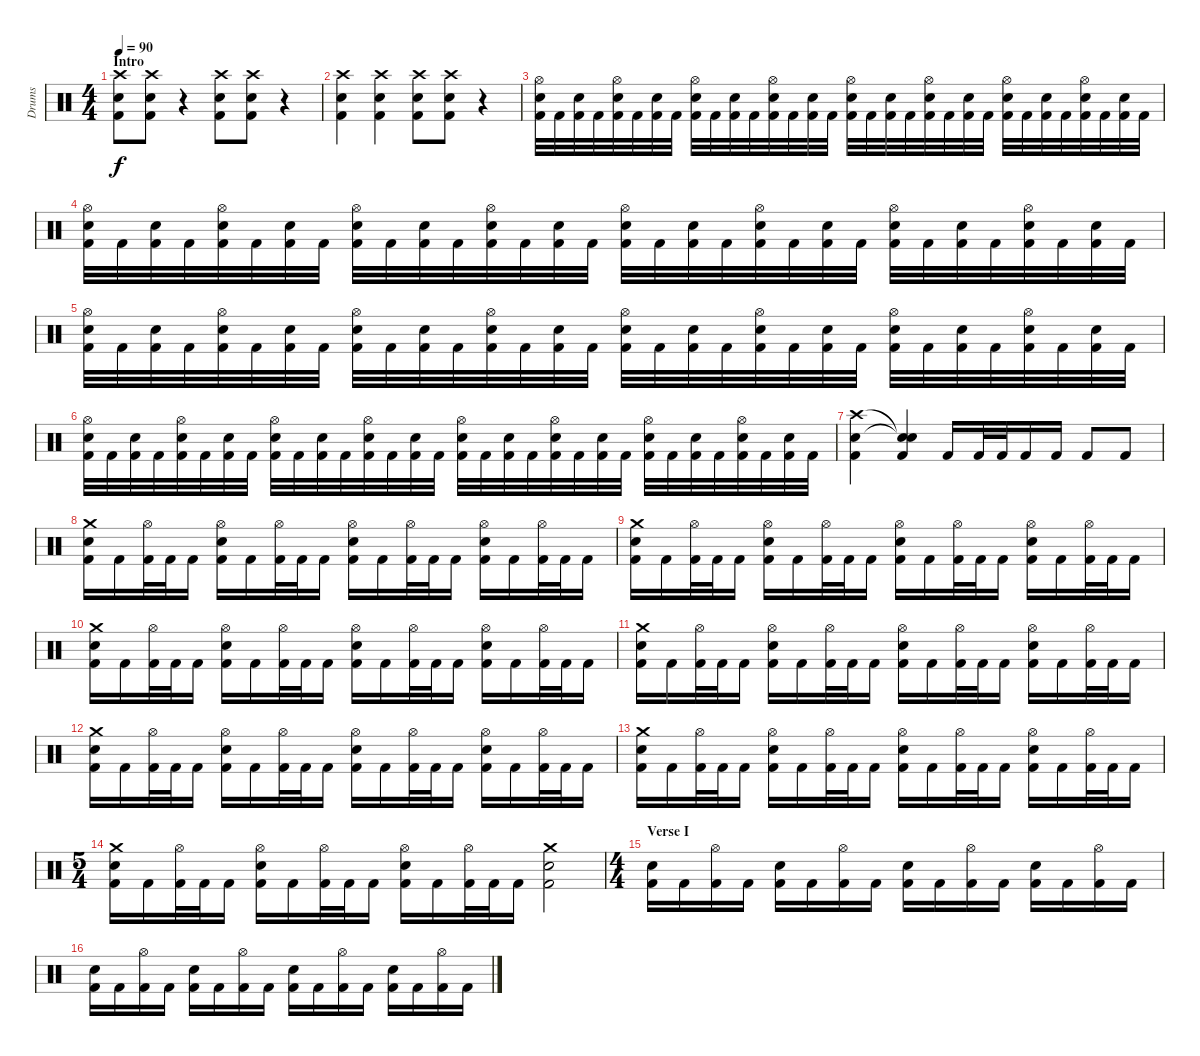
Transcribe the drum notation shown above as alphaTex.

\track ("Drums" "Drums") {instrument percussion}
\staff {score}
\articulation defaults
\ts (4 4)
\section ("" "Intro")
\tempo 90
\clef neutral
\ks c
("Kick (hit) 2" "Snare (hit) 2" "Crash high (hit)").8{dy f} ("Kick (hit) 2" "Snare (hit) 2" "Crash high (hit)").8 r.4 ("Kick (hit) 2" "Snare (hit) 2" "Crash high (hit)").8 ("Kick (hit) 2" "Snare (hit) 2" "Crash high (hit)").8 r.4 |
("Kick (hit) 2" "Snare (hit) 2" "Crash high (hit)").4 ("Kick (hit) 2" "Snare (hit) 2" "Crash high (hit)").4 ("Kick (hit) 2" "Snare (hit) 2" "Crash high (hit)").8 ("Kick (hit) 2" "Snare (hit) 2" "Crash high (hit)").8 r.4 |
("Kick (hit) 2" "Hi-Hat (open)" "Snare (hit) 2").32 "Kick (hit) 2".32 ("Kick (hit) 2" "Snare (hit) 2").32 "Kick (hit) 2".32 ("Kick (hit) 2" "Hi-Hat (open)" "Snare (hit) 2").32 "Kick (hit) 2".32 ("Kick (hit) 2" "Snare (hit) 2").32 "Kick (hit) 2".32 ("Kick (hit) 2" "Hi-Hat (open)" "Snare (hit) 2").32 "Kick (hit) 2".32 ("Kick (hit) 2" "Snare (hit) 2").32 "Kick (hit) 2".32 ("Kick (hit) 2" "Hi-Hat (open)" "Snare (hit) 2").32 "Kick (hit) 2".32 ("Kick (hit) 2" "Snare (hit) 2").32 "Kick (hit) 2".32 ("Kick (hit) 2" "Hi-Hat (open)" "Snare (hit) 2").32 "Kick (hit) 2".32 ("Kick (hit) 2" "Snare (hit) 2").32 "Kick (hit) 2".32 ("Kick (hit) 2" "Hi-Hat (open)" "Snare (hit) 2").32 "Kick (hit) 2".32 ("Kick (hit) 2" "Snare (hit) 2").32 "Kick (hit) 2".32 ("Kick (hit) 2" "Hi-Hat (open)" "Snare (hit) 2").32 "Kick (hit) 2".32 ("Kick (hit) 2" "Snare (hit) 2").32 "Kick (hit) 2".32 ("Kick (hit) 2" "Hi-Hat (open)" "Snare (hit) 2").32 "Kick (hit) 2".32 ("Kick (hit) 2" "Snare (hit) 2").32 "Kick (hit) 2".32 |
("Kick (hit) 2" "Hi-Hat (open)" "Snare (hit) 2").32 "Kick (hit) 2".32 ("Kick (hit) 2" "Snare (hit) 2").32 "Kick (hit) 2".32 ("Kick (hit) 2" "Hi-Hat (open)" "Snare (hit) 2").32 "Kick (hit) 2".32 ("Kick (hit) 2" "Snare (hit) 2").32 "Kick (hit) 2".32 ("Kick (hit) 2" "Hi-Hat (open)" "Snare (hit) 2").32 "Kick (hit) 2".32 ("Kick (hit) 2" "Snare (hit) 2").32 "Kick (hit) 2".32 ("Kick (hit) 2" "Hi-Hat (open)" "Snare (hit) 2").32 "Kick (hit) 2".32 ("Kick (hit) 2" "Snare (hit) 2").32 "Kick (hit) 2".32 ("Kick (hit) 2" "Hi-Hat (open)" "Snare (hit) 2").32 "Kick (hit) 2".32 ("Kick (hit) 2" "Snare (hit) 2").32 "Kick (hit) 2".32 ("Kick (hit) 2" "Hi-Hat (open)" "Snare (hit) 2").32 "Kick (hit) 2".32 ("Kick (hit) 2" "Snare (hit) 2").32 "Kick (hit) 2".32 ("Kick (hit) 2" "Hi-Hat (open)" "Snare (hit) 2").32 "Kick (hit) 2".32 ("Kick (hit) 2" "Snare (hit) 2").32 "Kick (hit) 2".32 ("Kick (hit) 2" "Hi-Hat (open)" "Snare (hit) 2").32 "Kick (hit) 2".32 ("Kick (hit) 2" "Snare (hit) 2").32 "Kick (hit) 2".32 |
("Kick (hit) 2" "Hi-Hat (open)" "Snare (hit) 2").32 "Kick (hit) 2".32 ("Kick (hit) 2" "Snare (hit) 2").32 "Kick (hit) 2".32 ("Kick (hit) 2" "Hi-Hat (open)" "Snare (hit) 2").32 "Kick (hit) 2".32 ("Kick (hit) 2" "Snare (hit) 2").32 "Kick (hit) 2".32 ("Kick (hit) 2" "Hi-Hat (open)" "Snare (hit) 2").32 "Kick (hit) 2".32 ("Kick (hit) 2" "Snare (hit) 2").32 "Kick (hit) 2".32 ("Kick (hit) 2" "Hi-Hat (open)" "Snare (hit) 2").32 "Kick (hit) 2".32 ("Kick (hit) 2" "Snare (hit) 2").32 "Kick (hit) 2".32 ("Kick (hit) 2" "Hi-Hat (open)" "Snare (hit) 2").32 "Kick (hit) 2".32 ("Kick (hit) 2" "Snare (hit) 2").32 "Kick (hit) 2".32 ("Kick (hit) 2" "Hi-Hat (open)" "Snare (hit) 2").32 "Kick (hit) 2".32 ("Kick (hit) 2" "Snare (hit) 2").32 "Kick (hit) 2".32 ("Kick (hit) 2" "Hi-Hat (open)" "Snare (hit) 2").32 "Kick (hit) 2".32 ("Kick (hit) 2" "Snare (hit) 2").32 "Kick (hit) 2".32 ("Kick (hit) 2" "Hi-Hat (open)" "Snare (hit) 2").32 "Kick (hit) 2".32 ("Kick (hit) 2" "Snare (hit) 2").32 "Kick (hit) 2".32 |
("Kick (hit) 2" "Hi-Hat (open)" "Snare (hit) 2").32 "Kick (hit) 2".32 ("Kick (hit) 2" "Snare (hit) 2").32 "Kick (hit) 2".32 ("Kick (hit) 2" "Hi-Hat (open)" "Snare (hit) 2").32 "Kick (hit) 2".32 ("Kick (hit) 2" "Snare (hit) 2").32 "Kick (hit) 2".32 ("Kick (hit) 2" "Hi-Hat (open)" "Snare (hit) 2").32 "Kick (hit) 2".32 ("Kick (hit) 2" "Snare (hit) 2").32 "Kick (hit) 2".32 ("Kick (hit) 2" "Hi-Hat (open)" "Snare (hit) 2").32 "Kick (hit) 2".32 ("Kick (hit) 2" "Snare (hit) 2").32 "Kick (hit) 2".32 ("Kick (hit) 2" "Hi-Hat (open)" "Snare (hit) 2").32 "Kick (hit) 2".32 ("Kick (hit) 2" "Snare (hit) 2").32 "Kick (hit) 2".32 ("Kick (hit) 2" "Hi-Hat (open)" "Snare (hit) 2").32 "Kick (hit) 2".32 ("Kick (hit) 2" "Snare (hit) 2").32 "Kick (hit) 2".32 ("Kick (hit) 2" "Hi-Hat (open)" "Snare (hit) 2").32 "Kick (hit) 2".32 ("Kick (hit) 2" "Snare (hit) 2").32 "Kick (hit) 2".32 ("Kick (hit) 2" "Hi-Hat (open)" "Snare (hit) 2").32 "Kick (hit) 2".32 ("Kick (hit) 2" "Snare (hit) 2").32 "Kick (hit) 2".32 |
("Kick (hit) 2" "Snare (hit) 2" "Crash high (hit)").4 ("Kick (hit) 2" "Snare (hit)"{t} "Snare (hit)"{t}).4 "Kick (hit) 2".16 "Kick (hit) 2".32 "Kick (hit) 2".32 "Kick (hit) 2".16 "Kick (hit) 2".16 "Kick (hit) 2".8 "Kick (hit) 2".8 |
("Kick (hit) 2" "Snare (hit) 2" "Crash medium (hit)").16 "Kick (hit) 2".16 ("Kick (hit) 2" "Hi-Hat (open)").32 "Kick (hit) 2".32 "Kick (hit) 2".16 ("Kick (hit) 2" "Hi-Hat (open)" "Snare (hit) 2").16 "Kick (hit) 2".16 ("Kick (hit) 2" "Hi-Hat (open)").32 "Kick (hit) 2".32 "Kick (hit) 2".16 ("Kick (hit) 2" "Hi-Hat (open)" "Snare (hit) 2").16 "Kick (hit) 2".16 ("Kick (hit) 2" "Hi-Hat (open)").32 "Kick (hit) 2".32 "Kick (hit) 2".16 ("Kick (hit) 2" "Hi-Hat (open)" "Snare (hit) 2").16 "Kick (hit) 2".16 ("Kick (hit) 2" "Hi-Hat (open)").32 "Kick (hit) 2".32 "Kick (hit) 2".16 |
("Kick (hit) 2" "Snare (hit) 2" "Crash medium (hit)").16 "Kick (hit) 2".16 ("Kick (hit) 2" "Hi-Hat (open)").32 "Kick (hit) 2".32 "Kick (hit) 2".16 ("Kick (hit) 2" "Hi-Hat (open)" "Snare (hit) 2").16 "Kick (hit) 2".16 ("Kick (hit) 2" "Hi-Hat (open)").32 "Kick (hit) 2".32 "Kick (hit) 2".16 ("Kick (hit) 2" "Hi-Hat (open)" "Snare (hit) 2").16 "Kick (hit) 2".16 ("Kick (hit) 2" "Hi-Hat (open)").32 "Kick (hit) 2".32 "Kick (hit) 2".16 ("Kick (hit) 2" "Hi-Hat (open)" "Snare (hit) 2").16 "Kick (hit) 2".16 ("Kick (hit) 2" "Hi-Hat (open)").32 "Kick (hit) 2".32 "Kick (hit) 2".16 |
("Kick (hit) 2" "Snare (hit) 2" "Crash medium (hit)").16 "Kick (hit) 2".16 ("Kick (hit) 2" "Hi-Hat (open)").32 "Kick (hit) 2".32 "Kick (hit) 2".16 ("Kick (hit) 2" "Hi-Hat (open)" "Snare (hit) 2").16 "Kick (hit) 2".16 ("Kick (hit) 2" "Hi-Hat (open)").32 "Kick (hit) 2".32 "Kick (hit) 2".16 ("Kick (hit) 2" "Hi-Hat (open)" "Snare (hit) 2").16 "Kick (hit) 2".16 ("Kick (hit) 2" "Hi-Hat (open)").32 "Kick (hit) 2".32 "Kick (hit) 2".16 ("Kick (hit) 2" "Hi-Hat (open)" "Snare (hit) 2").16 "Kick (hit) 2".16 ("Kick (hit) 2" "Hi-Hat (open)").32 "Kick (hit) 2".32 "Kick (hit) 2".16 |
("Kick (hit) 2" "Snare (hit) 2" "Crash medium (hit)").16 "Kick (hit) 2".16 ("Kick (hit) 2" "Hi-Hat (open)").32 "Kick (hit) 2".32 "Kick (hit) 2".16 ("Kick (hit) 2" "Hi-Hat (open)" "Snare (hit) 2").16 "Kick (hit) 2".16 ("Kick (hit) 2" "Hi-Hat (open)").32 "Kick (hit) 2".32 "Kick (hit) 2".16 ("Kick (hit) 2" "Hi-Hat (open)" "Snare (hit) 2").16 "Kick (hit) 2".16 ("Kick (hit) 2" "Hi-Hat (open)").32 "Kick (hit) 2".32 "Kick (hit) 2".16 ("Kick (hit) 2" "Hi-Hat (open)" "Snare (hit) 2").16 "Kick (hit) 2".16 ("Kick (hit) 2" "Hi-Hat (open)").32 "Kick (hit) 2".32 "Kick (hit) 2".16 |
("Kick (hit) 2" "Snare (hit) 2" "Crash medium (hit)").16 "Kick (hit) 2".16 ("Kick (hit) 2" "Hi-Hat (open)").32 "Kick (hit) 2".32 "Kick (hit) 2".16 ("Kick (hit) 2" "Hi-Hat (open)" "Snare (hit) 2").16 "Kick (hit) 2".16 ("Kick (hit) 2" "Hi-Hat (open)").32 "Kick (hit) 2".32 "Kick (hit) 2".16 ("Kick (hit) 2" "Hi-Hat (open)" "Snare (hit) 2").16 "Kick (hit) 2".16 ("Kick (hit) 2" "Hi-Hat (open)").32 "Kick (hit) 2".32 "Kick (hit) 2".16 ("Kick (hit) 2" "Hi-Hat (open)" "Snare (hit) 2").16 "Kick (hit) 2".16 ("Kick (hit) 2" "Hi-Hat (open)").32 "Kick (hit) 2".32 "Kick (hit) 2".16 |
("Kick (hit) 2" "Snare (hit) 2" "Crash medium (hit)").16 "Kick (hit) 2".16 ("Kick (hit) 2" "Hi-Hat (open)").32 "Kick (hit) 2".32 "Kick (hit) 2".16 ("Kick (hit) 2" "Hi-Hat (open)" "Snare (hit) 2").16 "Kick (hit) 2".16 ("Kick (hit) 2" "Hi-Hat (open)").32 "Kick (hit) 2".32 "Kick (hit) 2".16 ("Kick (hit) 2" "Hi-Hat (open)" "Snare (hit) 2").16 "Kick (hit) 2".16 ("Kick (hit) 2" "Hi-Hat (open)").32 "Kick (hit) 2".32 "Kick (hit) 2".16 ("Kick (hit) 2" "Hi-Hat (open)" "Snare (hit) 2").16 "Kick (hit) 2".16 ("Kick (hit) 2" "Hi-Hat (open)").32 "Kick (hit) 2".32 "Kick (hit) 2".16 |
\ts (5 4)
("Kick (hit) 2" "Snare (hit) 2" "Crash medium (hit)").16 "Kick (hit) 2".16 ("Kick (hit) 2" "Hi-Hat (open)").32 "Kick (hit) 2".32 "Kick (hit) 2".16 ("Kick (hit) 2" "Hi-Hat (open)" "Snare (hit) 2").16 "Kick (hit) 2".16 ("Kick (hit) 2" "Hi-Hat (open)").32 "Kick (hit) 2".32 "Kick (hit) 2".16 ("Kick (hit) 2" "Hi-Hat (open)" "Snare (hit) 2").16 "Kick (hit) 2".16 ("Kick (hit) 2" "Hi-Hat (open)").32 "Kick (hit) 2".32 "Kick (hit) 2".16 ("Kick (hit) 2" "Snare (hit) 2" "Crash medium (hit)").2 |
\ts (4 4)
\section ("" "Verse I")
("Kick (hit) 2" "Snare (hit) 2").16 "Kick (hit) 2".16 ("Kick (hit) 2" "Hi-Hat (open)").16 "Kick (hit) 2".16 ("Kick (hit) 2" "Snare (hit) 2").16 "Kick (hit) 2".16 ("Kick (hit) 2" "Hi-Hat (open)").16 "Kick (hit) 2".16 ("Kick (hit) 2" "Snare (hit) 2").16 "Kick (hit) 2".16 ("Kick (hit) 2" "Hi-Hat (open)").16 "Kick (hit) 2".16 ("Kick (hit) 2" "Snare (hit) 2").16 "Kick (hit) 2".16 ("Kick (hit) 2" "Hi-Hat (open)").16 "Kick (hit) 2".16 |
("Kick (hit) 2" "Snare (hit) 2").16 "Kick (hit) 2".16 ("Kick (hit) 2" "Hi-Hat (open)").16 "Kick (hit) 2".16 ("Kick (hit) 2" "Snare (hit) 2").16 "Kick (hit) 2".16 ("Kick (hit) 2" "Hi-Hat (open)").16 "Kick (hit) 2".16 ("Kick (hit) 2" "Snare (hit) 2").16 "Kick (hit) 2".16 ("Kick (hit) 2" "Hi-Hat (open)").16 "Kick (hit) 2".16 ("Kick (hit) 2" "Snare (hit) 2").16 "Kick (hit) 2".16 ("Kick (hit) 2" "Hi-Hat (open)").16 "Kick (hit) 2".16
